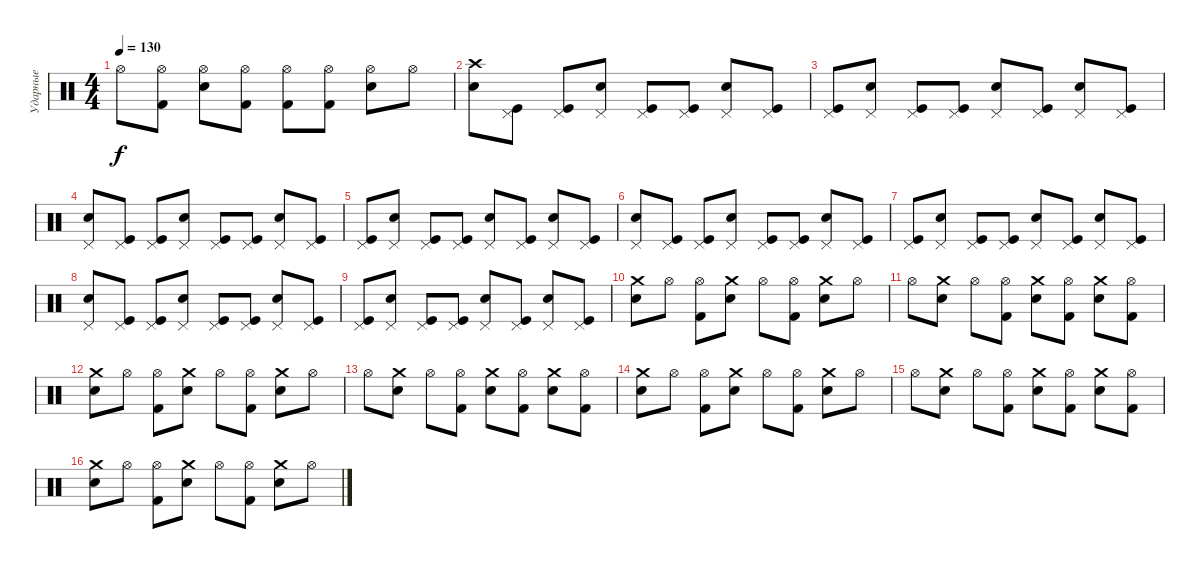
\track ("Ударные" "Ударные") {instrument percussion}
\staff {score}
\articulation defaults
\ts (4 4)
\tempo 130
\clef neutral
\ks c "Hi-Hat (open)".8{dy f}
("Hi-Hat (open)" "Kick (hit) 2").8 ("Hi-Hat (open)" "Snare (hit) 2").8 ("Hi-Hat (open)" "Kick (hit) 2").8 ("Hi-Hat (open)" "Kick (hit) 2").8 ("Hi-Hat (open)" "Kick (hit) 2").8 ("Hi-Hat (open)" "Snare (hit) 2").8 "Hi-Hat (open)".8 |
("Crash high (hit)" "Electric Snare (hit)").8 ("Pedal Hi-Hat (hit)" "Kick (hit)").8 ("Pedal Hi-Hat (hit)" "Kick (hit)").8 ("Pedal Hi-Hat (hit)" "Electric Snare (hit)").8 ("Pedal Hi-Hat (hit)" "Kick (hit)").8 ("Pedal Hi-Hat (hit)" "Kick (hit)").8 ("Pedal Hi-Hat (hit)" "Electric Snare (hit)").8 ("Pedal Hi-Hat (hit)" "Kick (hit)").8 |
("Pedal Hi-Hat (hit)" "Kick (hit)").8 ("Pedal Hi-Hat (hit)" "Electric Snare (hit)").8 ("Pedal Hi-Hat (hit)" "Kick (hit)").8 ("Pedal Hi-Hat (hit)" "Kick (hit)").8 ("Pedal Hi-Hat (hit)" "Electric Snare (hit)").8 ("Pedal Hi-Hat (hit)" "Kick (hit)").8 ("Pedal Hi-Hat (hit)" "Electric Snare (hit)").8 ("Pedal Hi-Hat (hit)" "Kick (hit)").8 |
("Pedal Hi-Hat (hit)" "Electric Snare (hit)").8 ("Pedal Hi-Hat (hit)" "Kick (hit)").8 ("Pedal Hi-Hat (hit)" "Kick (hit)").8 ("Pedal Hi-Hat (hit)" "Electric Snare (hit)").8 ("Pedal Hi-Hat (hit)" "Kick (hit)").8 ("Pedal Hi-Hat (hit)" "Kick (hit)").8 ("Pedal Hi-Hat (hit)" "Electric Snare (hit)").8 ("Pedal Hi-Hat (hit)" "Kick (hit)").8 |
("Pedal Hi-Hat (hit)" "Kick (hit)").8 ("Pedal Hi-Hat (hit)" "Electric Snare (hit)").8 ("Pedal Hi-Hat (hit)" "Kick (hit)").8 ("Pedal Hi-Hat (hit)" "Kick (hit)").8 ("Pedal Hi-Hat (hit)" "Electric Snare (hit)").8 ("Pedal Hi-Hat (hit)" "Kick (hit)").8 ("Pedal Hi-Hat (hit)" "Electric Snare (hit)").8 ("Pedal Hi-Hat (hit)" "Kick (hit)").8 |
("Pedal Hi-Hat (hit)" "Electric Snare (hit)").8 ("Pedal Hi-Hat (hit)" "Kick (hit)").8 ("Pedal Hi-Hat (hit)" "Kick (hit)").8 ("Pedal Hi-Hat (hit)" "Electric Snare (hit)").8 ("Pedal Hi-Hat (hit)" "Kick (hit)").8 ("Pedal Hi-Hat (hit)" "Kick (hit)").8 ("Pedal Hi-Hat (hit)" "Electric Snare (hit)").8 ("Pedal Hi-Hat (hit)" "Kick (hit)").8 |
("Pedal Hi-Hat (hit)" "Kick (hit)").8 ("Pedal Hi-Hat (hit)" "Electric Snare (hit)").8 ("Pedal Hi-Hat (hit)" "Kick (hit)").8 ("Pedal Hi-Hat (hit)" "Kick (hit)").8 ("Pedal Hi-Hat (hit)" "Electric Snare (hit)").8 ("Pedal Hi-Hat (hit)" "Kick (hit)").8 ("Pedal Hi-Hat (hit)" "Electric Snare (hit)").8 ("Pedal Hi-Hat (hit)" "Kick (hit)").8 |
("Pedal Hi-Hat (hit)" "Electric Snare (hit)").8 ("Pedal Hi-Hat (hit)" "Kick (hit)").8 ("Pedal Hi-Hat (hit)" "Kick (hit)").8 ("Pedal Hi-Hat (hit)" "Electric Snare (hit)").8 ("Pedal Hi-Hat (hit)" "Kick (hit)").8 ("Pedal Hi-Hat (hit)" "Kick (hit)").8 ("Pedal Hi-Hat (hit)" "Electric Snare (hit)").8 ("Pedal Hi-Hat (hit)" "Kick (hit)").8 |
("Pedal Hi-Hat (hit)" "Kick (hit)").8 ("Pedal Hi-Hat (hit)" "Electric Snare (hit)").8 ("Pedal Hi-Hat (hit)" "Kick (hit)").8 ("Pedal Hi-Hat (hit)" "Kick (hit)").8 ("Pedal Hi-Hat (hit)" "Electric Snare (hit)").8 ("Pedal Hi-Hat (hit)" "Kick (hit)").8 ("Pedal Hi-Hat (hit)" "Electric Snare (hit)").8 ("Pedal Hi-Hat (hit)" "Kick (hit)").8 |
("Crash medium (hit)" "Snare (hit) 2").8 "Hi-Hat (open)".8 ("Hi-Hat (open)" "Kick (hit) 2").8 ("Crash medium (hit)" "Snare (hit) 2").8 "Hi-Hat (open)".8 ("Hi-Hat (open)" "Kick (hit) 2").8 ("Crash medium (hit)" "Snare (hit) 2").8 "Hi-Hat (open)".8 |
"Hi-Hat (open)".8 ("Crash medium (hit)" "Snare (hit) 2").8 "Hi-Hat (open)".8 ("Hi-Hat (open)" "Kick (hit) 2").8 ("Crash medium (hit)" "Snare (hit) 2").8 ("Hi-Hat (open)" "Kick (hit) 2").8 ("Crash medium (hit)" "Snare (hit) 2").8 ("Hi-Hat (open)" "Kick (hit) 2").8 |
("Crash medium (hit)" "Snare (hit) 2").8 "Hi-Hat (open)".8 ("Hi-Hat (open)" "Kick (hit) 2").8 ("Crash medium (hit)" "Snare (hit) 2").8 "Hi-Hat (open)".8 ("Hi-Hat (open)" "Kick (hit) 2").8 ("Crash medium (hit)" "Snare (hit) 2").8 "Hi-Hat (open)".8 |
"Hi-Hat (open)".8 ("Crash medium (hit)" "Snare (hit) 2").8 "Hi-Hat (open)".8 ("Hi-Hat (open)" "Kick (hit) 2").8 ("Crash medium (hit)" "Snare (hit) 2").8 ("Hi-Hat (open)" "Kick (hit) 2").8 ("Crash medium (hit)" "Snare (hit) 2").8 ("Hi-Hat (open)" "Kick (hit) 2").8 |
("Crash medium (hit)" "Snare (hit) 2").8 "Hi-Hat (open)".8 ("Hi-Hat (open)" "Kick (hit) 2").8 ("Crash medium (hit)" "Snare (hit) 2").8 "Hi-Hat (open)".8 ("Hi-Hat (open)" "Kick (hit) 2").8 ("Crash medium (hit)" "Snare (hit) 2").8 "Hi-Hat (open)".8 |
"Hi-Hat (open)".8 ("Crash medium (hit)" "Snare (hit) 2").8 "Hi-Hat (open)".8 ("Hi-Hat (open)" "Kick (hit) 2").8 ("Crash medium (hit)" "Snare (hit) 2").8 ("Hi-Hat (open)" "Kick (hit) 2").8 ("Crash medium (hit)" "Snare (hit) 2").8 ("Hi-Hat (open)" "Kick (hit) 2").8 |
("Crash medium (hit)" "Snare (hit) 2").8 "Hi-Hat (open)".8 ("Hi-Hat (open)" "Kick (hit) 2").8 ("Crash medium (hit)" "Snare (hit) 2").8 "Hi-Hat (open)".8 ("Hi-Hat (open)" "Kick (hit) 2").8 ("Crash medium (hit)" "Snare (hit) 2").8 "Hi-Hat (open)".8
